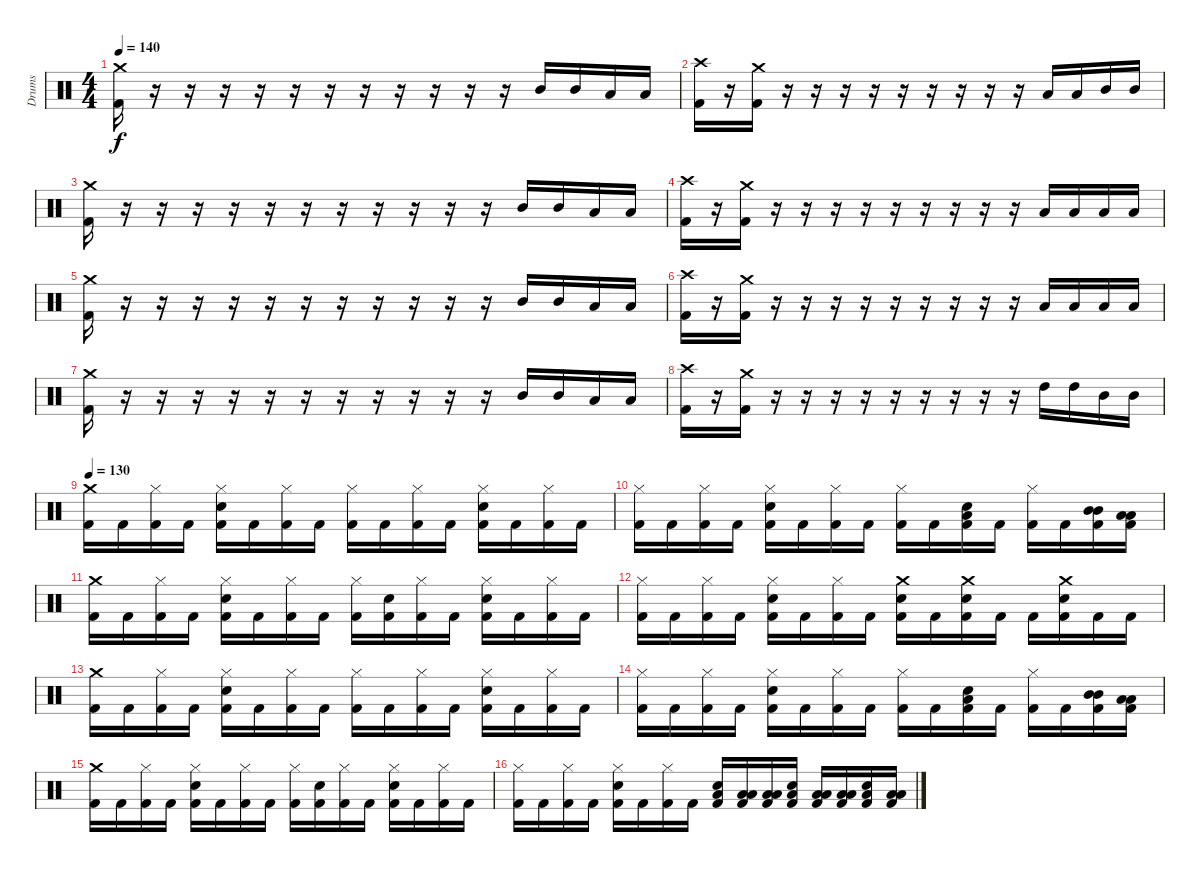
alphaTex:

\track ("Drums" "Drums") {instrument percussion}
\staff {score}
\articulation defaults
\ts (4 4)
\tempo 140
\clef neutral
\ks c
("Crash medium (hit)" "Kick (hit) 2").16{dy f} r.16 r.16 r.16 r.16 r.16 r.16 r.16 r.16 r.16 r.16 r.16 "Mid Tom (hit)".16 "Mid Tom (hit)".16 "Low Tom (hit)".16 "Low Tom (hit)".16 |
("Crash high (hit)" "Kick (hit) 2").16 r.16 ("Crash medium (hit)" "Kick (hit) 2").16 r.16 r.16 r.16 r.16 r.16 r.16 r.16 r.16 r.16 "Low Tom (hit)".16 "Low Tom (hit)".16 "Mid Tom (hit)".16 "Mid Tom (hit)".16 |
("Crash medium (hit)" "Kick (hit) 2").16 r.16 r.16 r.16 r.16 r.16 r.16 r.16 r.16 r.16 r.16 r.16 "Mid Tom (hit)".16 "Mid Tom (hit)".16 "Low Tom (hit)".16 "Low Tom (hit)".16 |
("Crash high (hit)" "Kick (hit) 2").16 r.16 ("Crash medium (hit)" "Kick (hit) 2").16 r.16 r.16 r.16 r.16 r.16 r.16 r.16 r.16 r.16 "Low Tom (hit)".16 "Low Tom (hit)".16 "Low Tom (hit)".16 "Low Tom (hit)".16 |
("Crash medium (hit)" "Kick (hit) 2").16 r.16 r.16 r.16 r.16 r.16 r.16 r.16 r.16 r.16 r.16 r.16 "Mid Tom (hit)".16 "Mid Tom (hit)".16 "Low Tom (hit)".16 "Low Tom (hit)".16 |
("Crash high (hit)" "Kick (hit) 2").16 r.16 ("Crash medium (hit)" "Kick (hit) 2").16 r.16 r.16 r.16 r.16 r.16 r.16 r.16 r.16 r.16 "Low Tom (hit)".16 "Low Tom (hit)".16 "Low Tom (hit)".16 "Low Tom (hit)".16 |
("Crash medium (hit)" "Kick (hit) 2").16 r.16 r.16 r.16 r.16 r.16 r.16 r.16 r.16 r.16 r.16 r.16 "Mid Tom (hit)".16 "Mid Tom (hit)".16 "Low Tom (hit)".16 "Low Tom (hit)".16 |
("Crash high (hit)" "Kick (hit) 2").16 r.16 ("Crash medium (hit)" "Kick (hit) 2").16 r.16 r.16 r.16 r.16 r.16 r.16 r.16 r.16 r.16 "High Tom (hit)".16 "High Tom (hit)".16 "Mid Tom (hit)".16 "Mid Tom (hit)".16 |
\tempo 130
("Crash medium (hit)" "Kick (hit) 2").16 "Kick (hit) 2".16 ("Hi-Hat (closed)" "Kick (hit) 2").16 "Kick (hit) 2".16 ("Hi-Hat (closed)" "Electric Snare (hit)" "Kick (hit) 2").16 "Kick (hit) 2".16 ("Hi-Hat (closed)" "Kick (hit) 2").16 "Kick (hit) 2".16 ("Hi-Hat (closed)" "Kick (hit) 2").16 "Kick (hit) 2".16 ("Hi-Hat (closed)" "Kick (hit) 2").16 "Kick (hit) 2".16 ("Hi-Hat (closed)" "Electric Snare (hit)" "Kick (hit) 2").16 "Kick (hit) 2".16 ("Hi-Hat (closed)" "Kick (hit) 2").16 "Kick (hit) 2".16 |
("Hi-Hat (closed)" "Kick (hit) 2").16 "Kick (hit) 2".16 ("Hi-Hat (closed)" "Kick (hit) 2").16 "Kick (hit) 2".16 ("Hi-Hat (closed)" "Electric Snare (hit)" "Kick (hit) 2").16 "Kick (hit) 2".16 ("Hi-Hat (closed)" "Kick (hit) 2").16 "Kick (hit) 2".16 ("Hi-Hat (closed)" "Kick (hit) 2").16 "Kick (hit) 2".16 ("Low Floor Tom (hit)" "Electric Snare (hit)" "Kick (hit) 2").16 "Kick (hit) 2".16 ("Hi-Hat (closed)" "Kick (hit) 2").16 "Kick (hit) 2".16 ("Mid Tom (hit)" "Mid Tom (hit)" "Kick (hit) 2").16 ("Low Tom (hit)" "Low Tom (hit)" "Kick (hit) 2").16 |
("Crash medium (hit)" "Kick (hit) 2").16 "Kick (hit) 2".16 ("Hi-Hat (closed)" "Kick (hit) 2").16 "Kick (hit) 2".16 ("Hi-Hat (closed)" "Electric Snare (hit)" "Kick (hit) 2").16 "Kick (hit) 2".16 ("Hi-Hat (closed)" "Kick (hit) 2").16 "Kick (hit) 2".16 ("Hi-Hat (closed)" "Kick (hit) 2").16 ("Electric Snare (hit)" "Kick (hit) 2").16 ("Hi-Hat (closed)" "Kick (hit) 2").16 "Kick (hit) 2".16 ("Hi-Hat (closed)" "Electric Snare (hit)" "Kick (hit) 2").16 "Kick (hit) 2".16 ("Hi-Hat (closed)" "Kick (hit) 2").16 "Kick (hit) 2".16 |
("Hi-Hat (closed)" "Kick (hit) 2").16 "Kick (hit) 2".16 ("Hi-Hat (closed)" "Kick (hit) 2").16 "Kick (hit) 2".16 ("Hi-Hat (closed)" "Electric Snare (hit)" "Kick (hit) 2").16 "Kick (hit) 2".16 ("Hi-Hat (closed)" "Kick (hit) 2").16 "Kick (hit) 2".16 ("Crash medium (hit)" "Electric Snare (hit)" "Kick (hit) 2").16 "Kick (hit) 2".16 ("Crash medium (hit)" "Electric Snare (hit)" "Kick (hit) 2").16 "Kick (hit) 2".16 "Kick (hit) 2".16 ("Crash medium (hit)" "Electric Snare (hit)" "Kick (hit) 2").16 "Kick (hit) 2".16 "Kick (hit) 2".16 |
("Crash medium (hit)" "Kick (hit) 2").16 "Kick (hit) 2".16 ("Hi-Hat (closed)" "Kick (hit) 2").16 "Kick (hit) 2".16 ("Hi-Hat (closed)" "Electric Snare (hit)" "Kick (hit) 2").16 "Kick (hit) 2".16 ("Hi-Hat (closed)" "Kick (hit) 2").16 "Kick (hit) 2".16 ("Hi-Hat (closed)" "Kick (hit) 2").16 "Kick (hit) 2".16 ("Hi-Hat (closed)" "Kick (hit) 2").16 "Kick (hit) 2".16 ("Hi-Hat (closed)" "Electric Snare (hit)" "Kick (hit) 2").16 "Kick (hit) 2".16 ("Hi-Hat (closed)" "Kick (hit) 2").16 "Kick (hit) 2".16 |
("Hi-Hat (closed)" "Kick (hit) 2").16 "Kick (hit) 2".16 ("Hi-Hat (closed)" "Kick (hit) 2").16 "Kick (hit) 2".16 ("Hi-Hat (closed)" "Electric Snare (hit)" "Kick (hit) 2").16 "Kick (hit) 2".16 ("Hi-Hat (closed)" "Kick (hit) 2").16 "Kick (hit) 2".16 ("Hi-Hat (closed)" "Kick (hit) 2").16 "Kick (hit) 2".16 ("Low Floor Tom (hit)" "Electric Snare (hit)" "Kick (hit) 2").16 "Kick (hit) 2".16 ("Hi-Hat (closed)" "Kick (hit) 2").16 "Kick (hit) 2".16 ("Mid Tom (hit)" "Mid Tom (hit)" "Kick (hit) 2").16 ("Low Tom (hit)" "Low Tom (hit)" "Kick (hit) 2").16 |
("Crash medium (hit)" "Kick (hit) 2").16 "Kick (hit) 2".16 ("Hi-Hat (closed)" "Kick (hit) 2").16 "Kick (hit) 2".16 ("Hi-Hat (closed)" "Electric Snare (hit)" "Kick (hit) 2").16 "Kick (hit) 2".16 ("Hi-Hat (closed)" "Kick (hit) 2").16 "Kick (hit) 2".16 ("Hi-Hat (closed)" "Kick (hit) 2").16 ("Electric Snare (hit)" "Kick (hit) 2").16 ("Hi-Hat (closed)" "Kick (hit) 2").16 "Kick (hit) 2".16 ("Hi-Hat (closed)" "Electric Snare (hit)" "Kick (hit) 2").16 "Kick (hit) 2".16 ("Hi-Hat (closed)" "Kick (hit) 2").16 "Kick (hit) 2".16 |
("Hi-Hat (closed)" "Kick (hit) 2").16 "Kick (hit) 2".16 ("Hi-Hat (closed)" "Kick (hit) 2").16 "Kick (hit) 2".16 ("Hi-Hat (closed)" "Electric Snare (hit)" "Kick (hit) 2").16 "Kick (hit) 2".16 ("Hi-Hat (closed)" "Kick (hit) 2").16 "Kick (hit) 2".16 ("Low Floor Tom (hit)" "Electric Snare (hit)" "Kick (hit) 2").16 ("Low Floor Tom (hit)" "Low Floor Tom (hit)" "Kick (hit) 2").16 ("Low Floor Tom (hit)" "Low Floor Tom (hit)" "Kick (hit) 2").16 ("Low Floor Tom (hit)" "Electric Snare (hit)" "Kick (hit) 2").16 ("Low Floor Tom (hit)" "Low Floor Tom (hit)" "Kick (hit) 2").16 ("Low Floor Tom (hit)" "Low Floor Tom (hit)" "Kick (hit) 2").16 ("Low Floor Tom (hit)" "Electric Snare (hit)" "Kick (hit) 2").16 ("Low Floor Tom (hit)" "Low Floor Tom (hit)" "Kick (hit) 2").16
